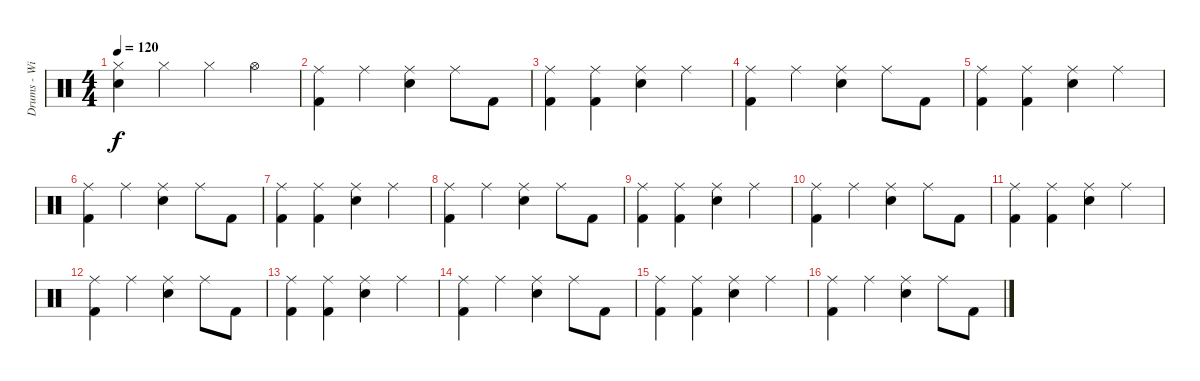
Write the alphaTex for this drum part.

\track ("Drums - Willi Wurm" "Drums - Wi") {instrument percussion}
\staff {score}
\articulation defaults
\ts (4 4)
\tempo 120
\clef neutral
\ks c
("Hi-Hat (closed)" "Snare (hit) 2").4{dy f} "Hi-Hat (closed)".4 "Hi-Hat (closed)".4 "Hi-Hat (open)".4 |
("Ride (middle)" "Kick (hit) 2").4 "Ride (middle)".4 ("Ride (middle)" "Snare (hit) 2").4 "Ride (middle)".8 "Kick (hit) 2".8 |
("Ride (middle)" "Kick (hit) 2").4 ("Ride (middle)" "Kick (hit) 2").4 ("Ride (middle)" "Snare (hit) 2").4 "Ride (middle)".4 |
("Ride (middle)" "Kick (hit) 2").4 "Ride (middle)".4 ("Ride (middle)" "Snare (hit) 2").4 "Ride (middle)".8 "Kick (hit) 2".8 |
("Ride (middle)" "Kick (hit) 2").4 ("Ride (middle)" "Kick (hit) 2").4 ("Ride (middle)" "Snare (hit) 2").4 "Ride (middle)".4 |
("Ride (middle)" "Kick (hit) 2").4 "Ride (middle)".4 ("Ride (middle)" "Snare (hit) 2").4 "Ride (middle)".8 "Kick (hit) 2".8 |
("Ride (middle)" "Kick (hit) 2").4 ("Ride (middle)" "Kick (hit) 2").4 ("Ride (middle)" "Snare (hit) 2").4 "Ride (middle)".4 |
("Ride (middle)" "Kick (hit) 2").4 "Ride (middle)".4 ("Ride (middle)" "Snare (hit) 2").4 "Ride (middle)".8 "Kick (hit) 2".8 |
("Ride (middle)" "Kick (hit) 2").4 ("Ride (middle)" "Kick (hit) 2").4 ("Ride (middle)" "Snare (hit) 2").4 "Ride (middle)".4 |
("Ride (middle)" "Kick (hit) 2").4 "Ride (middle)".4 ("Ride (middle)" "Snare (hit) 2").4 "Ride (middle)".8 "Kick (hit) 2".8 |
("Ride (middle)" "Kick (hit) 2").4 ("Ride (middle)" "Kick (hit) 2").4 ("Ride (middle)" "Snare (hit) 2").4 "Ride (middle)".4 |
("Ride (middle)" "Kick (hit) 2").4 "Ride (middle)".4 ("Ride (middle)" "Snare (hit) 2").4 "Ride (middle)".8 "Kick (hit) 2".8 |
("Ride (middle)" "Kick (hit) 2").4 ("Ride (middle)" "Kick (hit) 2").4 ("Ride (middle)" "Snare (hit) 2").4 "Ride (middle)".4 |
("Ride (middle)" "Kick (hit) 2").4 "Ride (middle)".4 ("Ride (middle)" "Snare (hit) 2").4 "Ride (middle)".8 "Kick (hit) 2".8 |
("Ride (middle)" "Kick (hit) 2").4 ("Ride (middle)" "Kick (hit) 2").4 ("Ride (middle)" "Snare (hit) 2").4 "Ride (middle)".4 |
("Ride (middle)" "Kick (hit) 2").4 "Ride (middle)".4 ("Ride (middle)" "Snare (hit) 2").4 "Ride (middle)".8 "Kick (hit) 2".8
